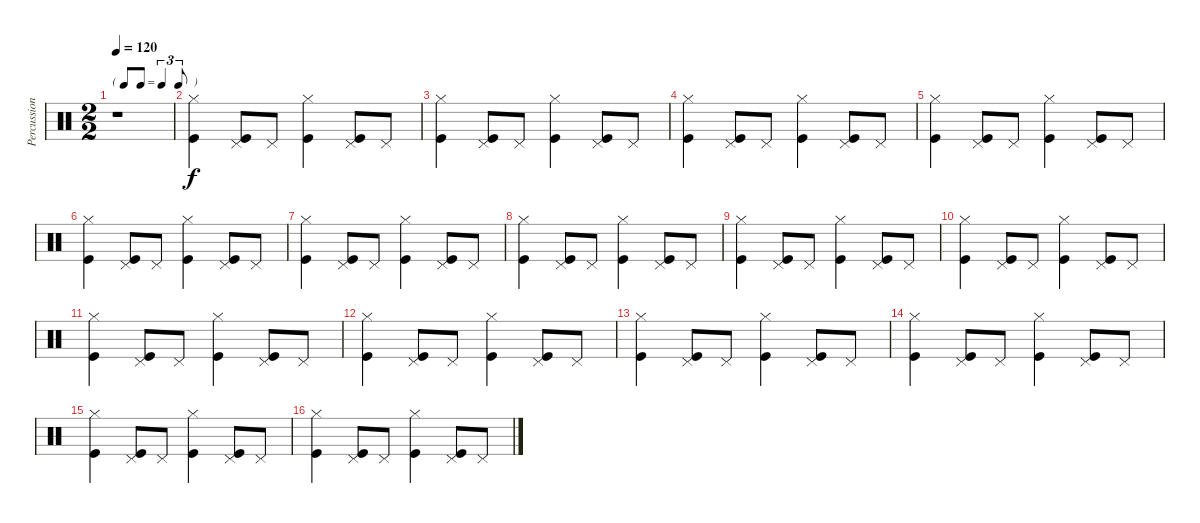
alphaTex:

\track ("Percussions" "Percussion") {instrument percussion}
\staff {score}
\articulation defaults
\ts (2 2)
\tf triplet8th
\tempo 120
\tempo 172
\tempo 120
\clef neutral
\ks c
r.1{dy f} |
("Hi-Hat (closed)" "Kick (hit)").4 ("Pedal Hi-Hat (hit)" "Kick (hit)").8 "Pedal Hi-Hat (hit)".8 ("Hi-Hat (closed)" "Kick (hit)").4 ("Pedal Hi-Hat (hit)" "Kick (hit)").8 "Pedal Hi-Hat (hit)".8 |
("Hi-Hat (closed)" "Kick (hit)").4 ("Pedal Hi-Hat (hit)" "Kick (hit)").8 "Pedal Hi-Hat (hit)".8 ("Hi-Hat (closed)" "Kick (hit)").4 ("Pedal Hi-Hat (hit)" "Kick (hit)").8 "Pedal Hi-Hat (hit)".8 |
("Hi-Hat (closed)" "Kick (hit)").4 ("Pedal Hi-Hat (hit)" "Kick (hit)").8 "Pedal Hi-Hat (hit)".8 ("Hi-Hat (closed)" "Kick (hit)").4 ("Pedal Hi-Hat (hit)" "Kick (hit)").8 "Pedal Hi-Hat (hit)".8 |
("Hi-Hat (closed)" "Kick (hit)").4 ("Pedal Hi-Hat (hit)" "Kick (hit)").8 "Pedal Hi-Hat (hit)".8 ("Hi-Hat (closed)" "Kick (hit)").4 ("Pedal Hi-Hat (hit)" "Kick (hit)").8 "Pedal Hi-Hat (hit)".8 |
("Hi-Hat (closed)" "Kick (hit)").4 ("Pedal Hi-Hat (hit)" "Kick (hit)").8 "Pedal Hi-Hat (hit)".8 ("Hi-Hat (closed)" "Kick (hit)").4 ("Pedal Hi-Hat (hit)" "Kick (hit)").8 "Pedal Hi-Hat (hit)".8 |
("Hi-Hat (closed)" "Kick (hit)").4 ("Pedal Hi-Hat (hit)" "Kick (hit)").8 "Pedal Hi-Hat (hit)".8 ("Hi-Hat (closed)" "Kick (hit)").4 ("Pedal Hi-Hat (hit)" "Kick (hit)").8 "Pedal Hi-Hat (hit)".8 |
("Hi-Hat (closed)" "Kick (hit)").4 ("Pedal Hi-Hat (hit)" "Kick (hit)").8 "Pedal Hi-Hat (hit)".8 ("Hi-Hat (closed)" "Kick (hit)").4 ("Pedal Hi-Hat (hit)" "Kick (hit)").8 "Pedal Hi-Hat (hit)".8 |
("Hi-Hat (closed)" "Kick (hit)").4 ("Pedal Hi-Hat (hit)" "Kick (hit)").8 "Pedal Hi-Hat (hit)".8 ("Hi-Hat (closed)" "Kick (hit)").4 ("Pedal Hi-Hat (hit)" "Kick (hit)").8 "Pedal Hi-Hat (hit)".8 |
("Hi-Hat (closed)" "Kick (hit)").4 ("Pedal Hi-Hat (hit)" "Kick (hit)").8 "Pedal Hi-Hat (hit)".8 ("Hi-Hat (closed)" "Kick (hit)").4 ("Pedal Hi-Hat (hit)" "Kick (hit)").8 "Pedal Hi-Hat (hit)".8 |
("Hi-Hat (closed)" "Kick (hit)").4 ("Pedal Hi-Hat (hit)" "Kick (hit)").8 "Pedal Hi-Hat (hit)".8 ("Hi-Hat (closed)" "Kick (hit)").4 ("Pedal Hi-Hat (hit)" "Kick (hit)").8 "Pedal Hi-Hat (hit)".8 |
("Hi-Hat (closed)" "Kick (hit)").4 ("Pedal Hi-Hat (hit)" "Kick (hit)").8 "Pedal Hi-Hat (hit)".8 ("Hi-Hat (closed)" "Kick (hit)").4 ("Pedal Hi-Hat (hit)" "Kick (hit)").8 "Pedal Hi-Hat (hit)".8 |
("Hi-Hat (closed)" "Kick (hit)").4 ("Pedal Hi-Hat (hit)" "Kick (hit)").8 "Pedal Hi-Hat (hit)".8 ("Hi-Hat (closed)" "Kick (hit)").4 ("Pedal Hi-Hat (hit)" "Kick (hit)").8 "Pedal Hi-Hat (hit)".8 |
("Hi-Hat (closed)" "Kick (hit)").4 ("Pedal Hi-Hat (hit)" "Kick (hit)").8 "Pedal Hi-Hat (hit)".8 ("Hi-Hat (closed)" "Kick (hit)").4 ("Pedal Hi-Hat (hit)" "Kick (hit)").8 "Pedal Hi-Hat (hit)".8 |
("Hi-Hat (closed)" "Kick (hit)").4 ("Pedal Hi-Hat (hit)" "Kick (hit)").8 "Pedal Hi-Hat (hit)".8 ("Hi-Hat (closed)" "Kick (hit)").4 ("Pedal Hi-Hat (hit)" "Kick (hit)").8 "Pedal Hi-Hat (hit)".8 |
("Hi-Hat (closed)" "Kick (hit)").4 ("Pedal Hi-Hat (hit)" "Kick (hit)").8 "Pedal Hi-Hat (hit)".8 ("Hi-Hat (closed)" "Kick (hit)").4 ("Pedal Hi-Hat (hit)" "Kick (hit)").8 "Pedal Hi-Hat (hit)".8
